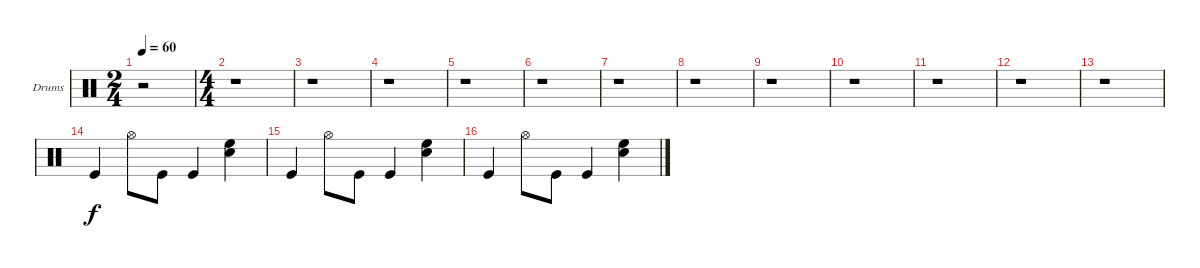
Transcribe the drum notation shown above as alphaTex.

\bracketExtendMode groupsimilarinstruments
\firstSystemTrackNameOrientation horizontal
\otherSystemsTrackNameOrientation horizontal
\track ("Drumkit" "Drums") {instrument percussion}
\staff {score}
\articulation defaults
\ts (2 4)
\beaming (8 2 2)
\tempo 60
\clef neutral
\ks c
r.2{dy f} |
\ts (4 4)
\beaming (8 2 2 2 2)
r.1 |
r.1 |
r.1 |
r.1 |
r.1 |
r.1 |
r.1 |
r.1 |
r.1 |
r.1 |
r.1 |
r.1 |
"Kick (hit)".4 "Hi-Hat (open)".8 "Kick (hit)".8 "Kick (hit)".4 ("High Floor Tom (hit)" "Snare (hit) 2").4 |
"Kick (hit)".4 "Hi-Hat (open)".8 "Kick (hit)".8 "Kick (hit)".4 ("High Floor Tom (hit)" "Snare (hit) 2").4 |
"Kick (hit)".4 "Hi-Hat (open)".8 "Kick (hit)".8 "Kick (hit)".4 ("High Floor Tom (hit)" "Snare (hit) 2").4
